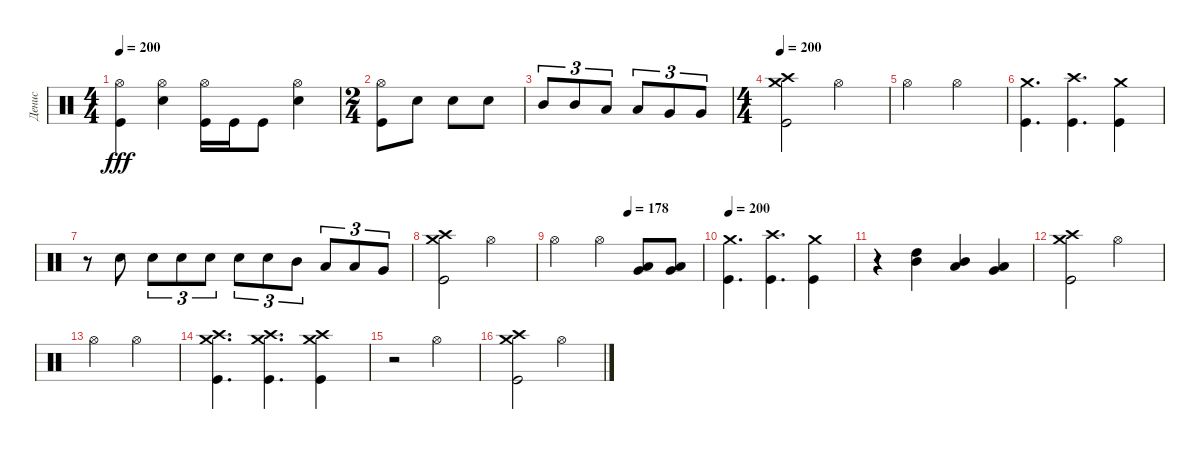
\track ("Денис" "Денис") {instrument percussion}
\staff {score}
\articulation defaults
\ts (4 4)
\tempo 200
\clef neutral
\ks c
("Hi-Hat (open)" "Kick (hit)").4{dy fff} ("Electric Snare (hit)" "Hi-Hat (open)").4 ("Hi-Hat (open)" "Kick (hit)").16 "Kick (hit)".16 "Kick (hit)".8 ("Electric Snare (hit)" "Hi-Hat (open)").4 |
\ts (2 4)
("Kick (hit)" "Hi-Hat (open)").8 "Electric Snare (hit)".8 "Electric Snare (hit)".8 "Electric Snare (hit)".8 |
"Mid Tom (hit)".8{tu (3 2)} "Mid Tom (hit)".8{tu (3 2)} "Low Tom (hit)".8{tu (3 2)} "Low Tom (hit)".8{tu (3 2)} "Very Low Tom (hit)".8{tu (3 2)} "Very Low Tom (hit)".8{tu (3 2)} |
\ts (4 4)
\tempo 200
("Crash high (hit)" "Crash medium (hit)" "Kick (hit)").2 "Hi-Hat (open)".2 |
"Hi-Hat (open)".2 "Hi-Hat (open)".2 |
("Crash medium (hit)" "Kick (hit)").4{d} ("Kick (hit)" "Crash high (hit)").4{d} ("Crash medium (hit)" "Kick (hit)").4 |
r.8 "Electric Snare (hit)".8 "Electric Snare (hit)".8{tu (3 2)} "Electric Snare (hit)".8{tu (3 2)} "Electric Snare (hit)".8{tu (3 2)} "Electric Snare (hit)".8{tu (3 2)} "Electric Snare (hit)".8{tu (3 2)} "Mid Tom (hit)".8{tu (3 2)} "Low Tom (hit)".8{tu (3 2)} "Low Tom (hit)".8{tu (3 2)} "Very Low Tom (hit)".8{tu (3 2)} |
("Crash high (hit)" "Crash medium (hit)" "Kick (hit)").2 "Hi-Hat (open)".2 |
\tempo (178 0.5)
"Hi-Hat (open)".2 "Hi-Hat (open)".4 ("Low Tom (hit)" "Very Low Tom (hit)").8 ("Very Low Tom (hit)" "Low Tom (hit)").8 |
\tempo 200
("Crash medium (hit)" "Kick (hit)").4{d} ("Kick (hit)" "Crash high (hit)").4{d} ("Crash medium (hit)" "Kick (hit)").4 |
r.4 ("High Tom (hit)" "Mid Tom (hit)").4 ("Mid Tom (hit)" "Low Tom (hit)").4 ("Low Tom (hit)" "Very Low Tom (hit)").4 |
("Crash high (hit)" "Crash medium (hit)" "Kick (hit)").2 "Hi-Hat (open)".2 |
"Hi-Hat (open)".2 "Hi-Hat (open)".2 |
("Crash medium (hit)" "Kick (hit)" "Crash high (hit)").4{d} ("Kick (hit)" "Crash medium (hit)" "Crash high (hit)").4{d} ("Crash medium (hit)" "Kick (hit)" "Crash high (hit)").4 |
r.2 "Hi-Hat (open)".2 |
("Crash high (hit)" "Crash medium (hit)" "Kick (hit)").2 "Hi-Hat (open)".2
